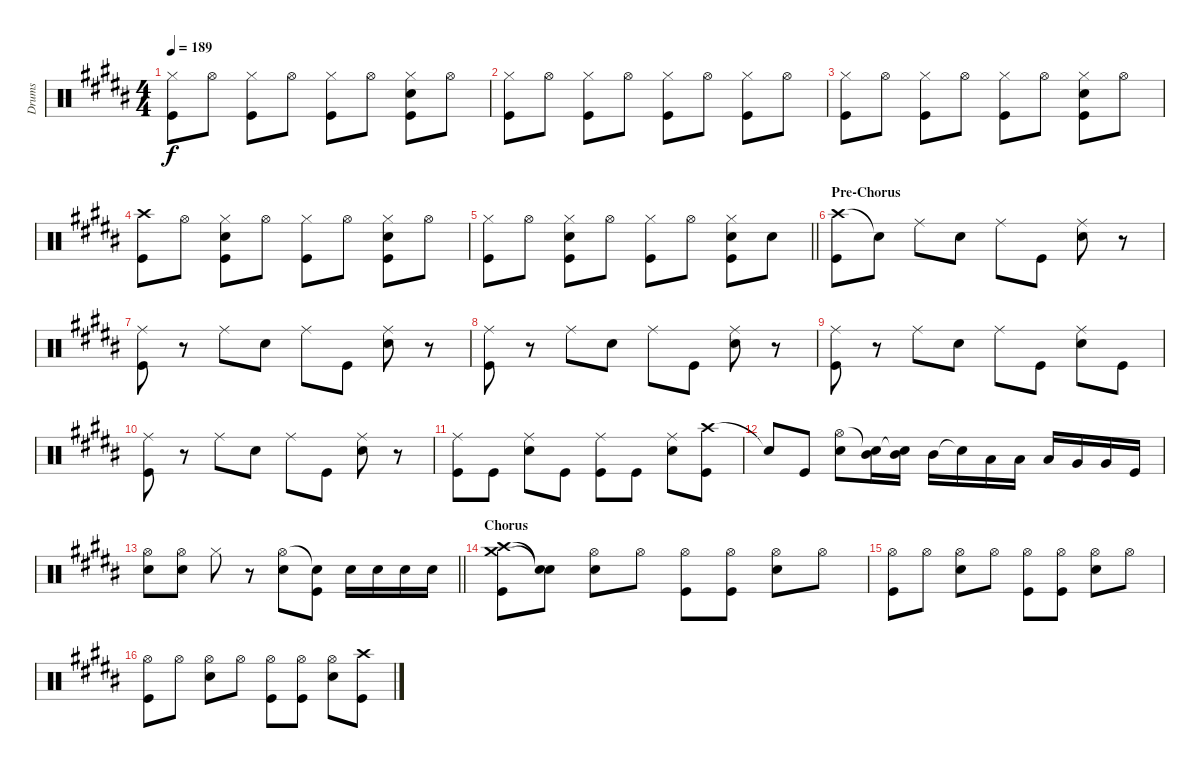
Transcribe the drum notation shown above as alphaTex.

\track ("Drums" "Drums") {instrument percussion}
\staff {score}
\articulation defaults
\ts (4 4)
\tempo 189
\clef neutral
\ks b
("Hi-Hat (closed)" "Kick (hit)").8{dy f} "Hi-Hat (open)".8 ("Hi-Hat (closed)" "Kick (hit)").8 "Hi-Hat (open)".8 ("Hi-Hat (closed)" "Kick (hit)").8 "Hi-Hat (open)".8 ("Hi-Hat (closed)" "Snare (hit) 2" "Kick (hit)").8 "Hi-Hat (open)".8 |
("Hi-Hat (closed)" "Kick (hit)").8 "Hi-Hat (open)".8 ("Hi-Hat (closed)" "Kick (hit)").8 "Hi-Hat (open)".8 ("Hi-Hat (closed)" "Kick (hit)").8 "Hi-Hat (open)".8 ("Hi-Hat (closed)" "Kick (hit)").8 "Hi-Hat (open)".8 |
("Hi-Hat (closed)" "Kick (hit)").8 "Hi-Hat (open)".8 ("Hi-Hat (closed)" "Kick (hit)").8 "Hi-Hat (open)".8 ("Hi-Hat (closed)" "Kick (hit)").8 "Hi-Hat (open)".8 ("Hi-Hat (closed)" "Snare (hit) 2" "Kick (hit)").8 "Hi-Hat (open)".8 |
("Crash high (hit)" "Kick (hit)").8 "Hi-Hat (open)".8 ("Hi-Hat (closed)" "Snare (hit) 2" "Kick (hit)").8 "Hi-Hat (open)".8 ("Hi-Hat (closed)" "Kick (hit)").8 "Hi-Hat (open)".8 ("Hi-Hat (closed)" "Snare (hit) 2" "Kick (hit)").8 "Hi-Hat (open)".8 |
\barLineRight lightlight
("Hi-Hat (closed)" "Kick (hit)").8 "Hi-Hat (open)".8 ("Hi-Hat (closed)" "Snare (hit) 2" "Kick (hit)").8 "Hi-Hat (open)".8 ("Hi-Hat (closed)" "Kick (hit)").8 "Hi-Hat (open)".8 ("Hi-Hat (closed)" "Snare (hit) 2" "Kick (hit)").8 "Snare (hit) 2".8 |
\section ("" "Pre-Chorus")
("Crash high (hit)" "Kick (hit)").8 "Snare (hit)"{t}.8 "Ride (middle)".8 "Snare (hit) 2".8 "Ride (middle)".8 "Kick (hit)".8 ("Ride (middle)" "Snare (hit) 2").8 r.8 |
("Ride (middle)" "Kick (hit)").8 r.8 "Ride (middle)".8 "Snare (hit) 2".8 "Ride (middle)".8 "Kick (hit)".8 ("Ride (middle)" "Snare (hit) 2").8 r.8 |
("Ride (middle)" "Kick (hit)").8 r.8 "Ride (middle)".8 "Snare (hit) 2".8 "Ride (middle)".8 "Kick (hit)".8 ("Ride (middle)" "Snare (hit) 2").8 r.8 |
("Ride (middle)" "Kick (hit)").8 r.8 "Ride (middle)".8 "Snare (hit) 2".8 "Ride (middle)".8 "Kick (hit)".8 ("Ride (middle)" "Snare (hit) 2").8 "Kick (hit)".8 |
("Ride (middle)" "Kick (hit)").8 r.8 "Ride (middle)".8 "Snare (hit) 2".8 "Ride (middle)".8 "Kick (hit)".8 ("Ride (middle)" "Snare (hit) 2").8 r.8 |
("Ride (middle)" "Kick (hit)").8 "Kick (hit)".8 ("Ride (middle)" "Snare (hit) 2").8 "Kick (hit)".8 ("Ride (middle)" "Kick (hit)").8 "Kick (hit)".8 ("Ride (middle)" "Snare (hit) 2").8 ("Crash high (hit)" "Kick (hit)").8 |
"Snare (hit)"{t}.8 "Kick (hit)".8 ("Hi-Hat (open)" "Snare (hit) 2").8 ("Snare (hit)"{t} "Mid Tom (hit)").16 ("Snare (hit)"{t} "Mid Tom (hit)").16 "Mid Tom (hit)".16 "Snare (hit)"{t}.16 "Low Tom (hit)".16 "Low Tom (hit)".16 "Low Tom (hit)".16 "Very Low Tom (hit)".16 "Very Low Tom (hit)".16 "Kick (hit)".16 |
\barLineRight lightlight
("Hi-Hat (open)" "Snare (hit) 2").8 ("Hi-Hat (open)" "Snare (hit) 2").8 "Hi-Hat (closed)".8 r.8 ("Hi-Hat (open)" "Snare (hit) 2").8 ("Snare (hit)"{t} "Kick (hit)").8 "Snare (hit) 2".16 "Snare (hit) 2".16 "Snare (hit) 2".16 "Snare (hit) 2".16 |
\section ("" "Chorus")
("Crash high (hit)" "Crash medium (hit)" "Kick (hit)").8 ("Snare (hit)"{t} "Snare (hit)"{t}).8 ("Hi-Hat (open)" "Snare (hit) 2").8 "Hi-Hat (open)".8 ("Hi-Hat (open)" "Kick (hit)").8 ("Hi-Hat (open)" "Kick (hit)").8 ("Hi-Hat (open)" "Snare (hit) 2").8 "Hi-Hat (open)".8 |
("Hi-Hat (open)" "Kick (hit)").8 "Hi-Hat (open)".8 ("Hi-Hat (open)" "Snare (hit) 2").8 "Hi-Hat (open)".8 ("Hi-Hat (open)" "Kick (hit)").8 ("Hi-Hat (open)" "Kick (hit)").8 ("Hi-Hat (open)" "Snare (hit) 2").8 "Hi-Hat (open)".8 |
("Hi-Hat (open)" "Kick (hit)").8 "Hi-Hat (open)".8 ("Hi-Hat (open)" "Snare (hit) 2").8 "Hi-Hat (open)".8 ("Hi-Hat (open)" "Kick (hit)").8 ("Hi-Hat (open)" "Kick (hit)").8 ("Hi-Hat (open)" "Snare (hit) 2").8 ("Crash high (hit)" "Kick (hit)").8
